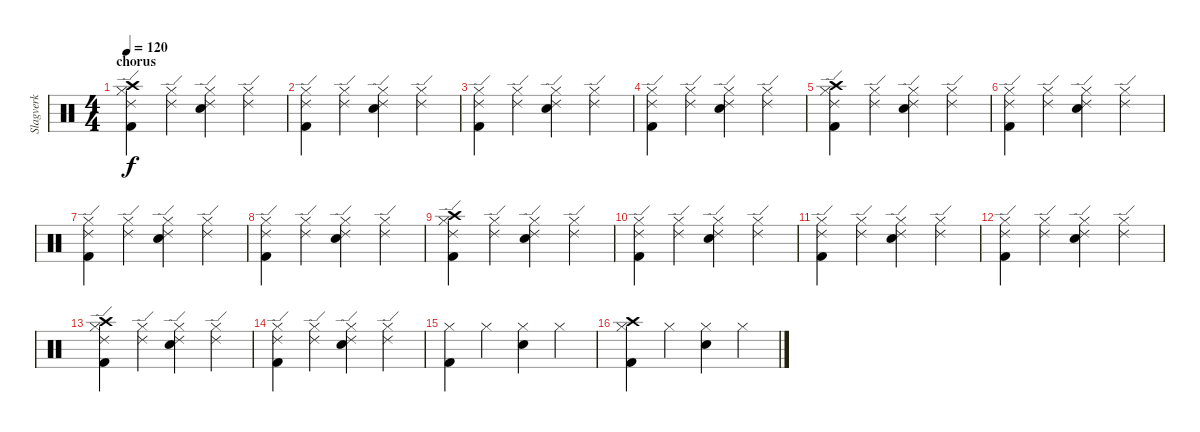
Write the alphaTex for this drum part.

\track ("Slagverk" "Slagverk") {instrument percussion}
\staff {score}
\articulation defaults
\ts (4 4)
\section ("" "chorus")
\tempo 120
\clef neutral
\ks c
("Hi-Hat (closed)" "Kick (hit) 2" "Crash high (hit)" "Ride (edge) 2").4{dy f} ("Hi-Hat (closed)" "Ride (edge) 2").4 ("Hi-Hat (closed)" "Snare (hit) 2" "Ride (edge) 2").4 ("Hi-Hat (closed)" "Ride (edge) 2").4 |
("Hi-Hat (closed)" "Kick (hit) 2" "Ride (edge) 2").4 ("Hi-Hat (closed)" "Ride (edge) 2").4 ("Hi-Hat (closed)" "Snare (hit) 2" "Ride (edge) 2").4 ("Hi-Hat (closed)" "Ride (edge) 2").4 |
("Hi-Hat (closed)" "Kick (hit) 2" "Ride (edge) 2").4 ("Hi-Hat (closed)" "Ride (edge) 2").4 ("Hi-Hat (closed)" "Snare (hit) 2" "Ride (edge) 2").4 ("Hi-Hat (closed)" "Ride (edge) 2").4 |
("Hi-Hat (closed)" "Kick (hit) 2" "Ride (edge) 2").4 ("Hi-Hat (closed)" "Ride (edge) 2").4 ("Hi-Hat (closed)" "Snare (hit) 2" "Ride (edge) 2").4 ("Hi-Hat (closed)" "Ride (edge) 2").4 |
("Hi-Hat (closed)" "Kick (hit) 2" "Crash high (hit)" "Ride (edge) 2").4 ("Hi-Hat (closed)" "Ride (edge) 2").4 ("Hi-Hat (closed)" "Snare (hit) 2" "Ride (edge) 2").4 ("Hi-Hat (closed)" "Ride (edge) 2").4 |
("Hi-Hat (closed)" "Kick (hit) 2" "Ride (edge) 2").4 ("Hi-Hat (closed)" "Ride (edge) 2").4 ("Hi-Hat (closed)" "Snare (hit) 2" "Ride (edge) 2").4 ("Hi-Hat (closed)" "Ride (edge) 2").4 |
("Hi-Hat (closed)" "Kick (hit) 2" "Ride (edge) 2").4 ("Hi-Hat (closed)" "Ride (edge) 2").4 ("Hi-Hat (closed)" "Snare (hit) 2" "Ride (edge) 2").4 ("Hi-Hat (closed)" "Ride (edge) 2").4 |
("Hi-Hat (closed)" "Kick (hit) 2" "Ride (edge) 2").4 ("Hi-Hat (closed)" "Ride (edge) 2").4 ("Hi-Hat (closed)" "Snare (hit) 2" "Ride (edge) 2").4 ("Hi-Hat (closed)" "Ride (edge) 2").4 |
("Hi-Hat (closed)" "Kick (hit) 2" "Crash high (hit)" "Ride (edge) 2").4 ("Hi-Hat (closed)" "Ride (edge) 2").4 ("Hi-Hat (closed)" "Snare (hit) 2" "Ride (edge) 2").4 ("Hi-Hat (closed)" "Ride (edge) 2").4 |
("Hi-Hat (closed)" "Kick (hit) 2" "Ride (edge) 2").4 ("Hi-Hat (closed)" "Ride (edge) 2").4 ("Hi-Hat (closed)" "Snare (hit) 2" "Ride (edge) 2").4 ("Hi-Hat (closed)" "Ride (edge) 2").4 |
("Hi-Hat (closed)" "Kick (hit) 2" "Ride (edge) 2").4 ("Hi-Hat (closed)" "Ride (edge) 2").4 ("Hi-Hat (closed)" "Snare (hit) 2" "Ride (edge) 2").4 ("Hi-Hat (closed)" "Ride (edge) 2").4 |
("Hi-Hat (closed)" "Kick (hit) 2" "Ride (edge) 2").4 ("Hi-Hat (closed)" "Ride (edge) 2").4 ("Hi-Hat (closed)" "Snare (hit) 2" "Ride (edge) 2").4 ("Hi-Hat (closed)" "Ride (edge) 2").4 |
("Hi-Hat (closed)" "Kick (hit) 2" "Crash high (hit)" "Ride (edge) 2").4 ("Hi-Hat (closed)" "Ride (edge) 2").4 ("Hi-Hat (closed)" "Snare (hit) 2" "Ride (edge) 2").4 ("Hi-Hat (closed)" "Ride (edge) 2").4 |
("Hi-Hat (closed)" "Kick (hit) 2" "Ride (edge) 2").4 ("Hi-Hat (closed)" "Ride (edge) 2").4 ("Hi-Hat (closed)" "Snare (hit) 2" "Ride (edge) 2").4 ("Hi-Hat (closed)" "Ride (edge) 2").4 |
("Hi-Hat (closed)" "Kick (hit) 2").4 "Hi-Hat (closed)".4 ("Hi-Hat (closed)" "Snare (hit) 2").4 "Hi-Hat (closed)".4 |
("Hi-Hat (closed)" "Kick (hit) 2" "Crash high (hit)").4 "Hi-Hat (closed)".4 ("Hi-Hat (closed)" "Snare (hit) 2").4 "Hi-Hat (closed)".4
